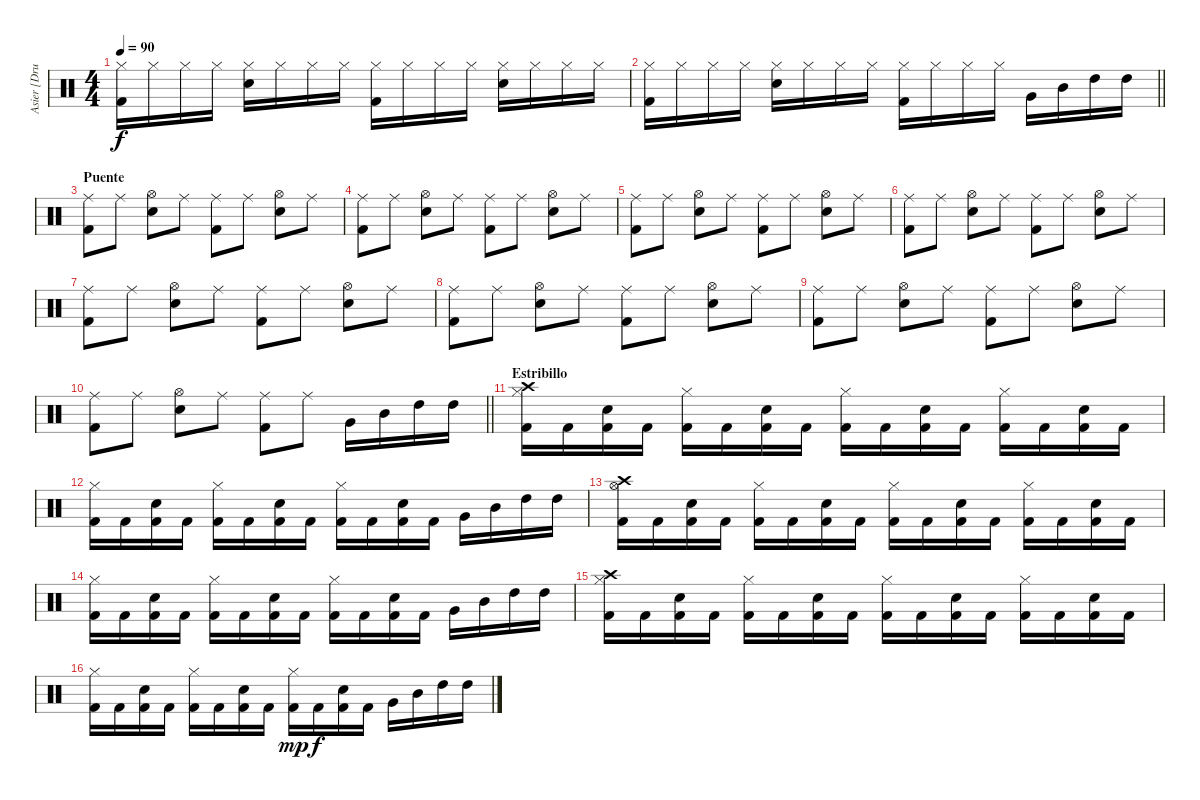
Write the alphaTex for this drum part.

\track ("Asier [Drums]" "Asier [Dru") {instrument percussion}
\staff {score}
\articulation defaults
\ts (4 4)
\tempo 90
\clef neutral
\ks c
("Hi-Hat (closed)" "Kick (hit) 2").16{dy f} "Hi-Hat (closed)".16 "Hi-Hat (closed)".16 "Hi-Hat (closed)".16 ("Hi-Hat (closed)" "Snare (hit) 2").16 "Hi-Hat (closed)".16 "Hi-Hat (closed)".16 "Hi-Hat (closed)".16 ("Hi-Hat (closed)" "Kick (hit) 2").16 "Hi-Hat (closed)".16 "Hi-Hat (closed)".16 "Hi-Hat (closed)".16 ("Hi-Hat (closed)" "Snare (hit) 2").16 "Hi-Hat (closed)".16 "Hi-Hat (closed)".16 "Hi-Hat (closed)".16 |
\barLineRight lightlight
("Hi-Hat (closed)" "Kick (hit) 2").16 "Hi-Hat (closed)".16 "Hi-Hat (closed)".16 "Hi-Hat (closed)".16 ("Hi-Hat (closed)" "Snare (hit) 2").16 "Hi-Hat (closed)".16 "Hi-Hat (closed)".16 "Hi-Hat (closed)".16 ("Hi-Hat (closed)" "Kick (hit) 2").16 "Hi-Hat (closed)".16 "Hi-Hat (closed)".16 "Hi-Hat (closed)".16 "Very Low Tom (hit)".16 "Mid Tom (hit)".16 "High Tom (hit)".16 "High Tom (hit)".16 |
\section ("" "Puente")
("Ride (middle)" "Kick (hit) 2").8 "Ride (middle)".8 ("Hi-Hat (open)" "Snare (hit) 2").8 "Ride (middle)".8 ("Ride (middle)" "Kick (hit) 2").8 "Ride (middle)".8 ("Hi-Hat (open)" "Snare (hit) 2").8 "Ride (middle)".8 |
("Ride (middle)" "Kick (hit) 2").8 "Ride (middle)".8 ("Hi-Hat (open)" "Snare (hit) 2").8 "Ride (middle)".8 ("Ride (middle)" "Kick (hit) 2").8 "Ride (middle)".8 ("Hi-Hat (open)" "Snare (hit) 2").8 "Ride (middle)".8 |
("Ride (middle)" "Kick (hit) 2").8 "Ride (middle)".8 ("Hi-Hat (open)" "Snare (hit) 2").8 "Ride (middle)".8 ("Ride (middle)" "Kick (hit) 2").8 "Ride (middle)".8 ("Hi-Hat (open)" "Snare (hit) 2").8 "Ride (middle)".8 |
("Ride (middle)" "Kick (hit) 2").8 "Ride (middle)".8 ("Hi-Hat (open)" "Snare (hit) 2").8 "Ride (middle)".8 ("Ride (middle)" "Kick (hit) 2").8 "Ride (middle)".8 ("Hi-Hat (open)" "Snare (hit) 2").8 "Ride (middle)".8 |
("Ride (middle)" "Kick (hit) 2").8 "Ride (middle)".8 ("Hi-Hat (open)" "Snare (hit) 2").8 "Ride (middle)".8 ("Ride (middle)" "Kick (hit) 2").8 "Ride (middle)".8 ("Hi-Hat (open)" "Snare (hit) 2").8 "Ride (middle)".8 |
("Ride (middle)" "Kick (hit) 2").8 "Ride (middle)".8 ("Hi-Hat (open)" "Snare (hit) 2").8 "Ride (middle)".8 ("Ride (middle)" "Kick (hit) 2").8 "Ride (middle)".8 ("Hi-Hat (open)" "Snare (hit) 2").8 "Ride (middle)".8 |
("Ride (middle)" "Kick (hit) 2").8 "Ride (middle)".8 ("Hi-Hat (open)" "Snare (hit) 2").8 "Ride (middle)".8 ("Ride (middle)" "Kick (hit) 2").8 "Ride (middle)".8 ("Hi-Hat (open)" "Snare (hit) 2").8 "Ride (middle)".8 |
\barLineRight lightlight
("Ride (middle)" "Kick (hit) 2").8 "Ride (middle)".8 ("Hi-Hat (open)" "Snare (hit) 2").8 "Ride (middle)".8 ("Ride (middle)" "Kick (hit) 2").8 "Ride (middle)".8 "Very Low Tom (hit)".16 "Mid Tom (hit)".16 "High Tom (hit)".16 "High Tom (hit)".16 |
\section ("" "Estribillo")
("Crash high (hit)" "Hi-Hat (closed)" "Kick (hit) 2").16 "Kick (hit) 2".16 ("Snare (hit) 2" "Kick (hit) 2").16 "Kick (hit) 2".16 ("Hi-Hat (closed)" "Kick (hit) 2").16 "Kick (hit) 2".16 ("Snare (hit) 2" "Kick (hit) 2").16 "Kick (hit) 2".16 ("Hi-Hat (closed)" "Kick (hit) 2").16 "Kick (hit) 2".16 ("Snare (hit) 2" "Kick (hit) 2").16 "Kick (hit) 2".16 ("Hi-Hat (closed)" "Kick (hit) 2").16 "Kick (hit) 2".16 ("Snare (hit) 2" "Kick (hit) 2").16 "Kick (hit) 2".16 |
("Hi-Hat (closed)" "Kick (hit) 2").16 "Kick (hit) 2".16 ("Snare (hit) 2" "Kick (hit) 2").16 "Kick (hit) 2".16 ("Hi-Hat (closed)" "Kick (hit) 2").16 "Kick (hit) 2".16 ("Snare (hit) 2" "Kick (hit) 2").16 "Kick (hit) 2".16 ("Hi-Hat (closed)" "Kick (hit) 2").16 "Kick (hit) 2".16 ("Snare (hit) 2" "Kick (hit) 2").16 "Kick (hit) 2".16 "Very Low Tom (hit)".16 "Mid Tom (hit)".16 "High Tom (hit)".16 "High Tom (hit)".16 |
("Crash high (hit)" "Hi-Hat (open)" "Kick (hit) 2").16 "Kick (hit) 2".16 ("Snare (hit) 2" "Kick (hit) 2").16 "Kick (hit) 2".16 ("Hi-Hat (closed)" "Kick (hit) 2").16 "Kick (hit) 2".16 ("Snare (hit) 2" "Kick (hit) 2").16 "Kick (hit) 2".16 ("Hi-Hat (closed)" "Kick (hit) 2").16 "Kick (hit) 2".16 ("Snare (hit) 2" "Kick (hit) 2").16 "Kick (hit) 2".16 ("Hi-Hat (closed)" "Kick (hit) 2").16 "Kick (hit) 2".16 ("Snare (hit) 2" "Kick (hit) 2").16 "Kick (hit) 2".16 |
("Hi-Hat (closed)" "Kick (hit) 2").16 "Kick (hit) 2".16 ("Snare (hit) 2" "Kick (hit) 2").16 "Kick (hit) 2".16 ("Hi-Hat (closed)" "Kick (hit) 2").16 "Kick (hit) 2".16 ("Snare (hit) 2" "Kick (hit) 2").16 "Kick (hit) 2".16 ("Hi-Hat (closed)" "Kick (hit) 2").16 "Kick (hit) 2".16 ("Snare (hit) 2" "Kick (hit) 2").16 "Kick (hit) 2".16 "Very Low Tom (hit)".16 "Mid Tom (hit)".16 "High Tom (hit)".16 "High Tom (hit)".16 |
("Crash high (hit)" "Hi-Hat (closed)" "Kick (hit) 2").16 "Kick (hit) 2".16 ("Snare (hit) 2" "Kick (hit) 2").16 "Kick (hit) 2".16 ("Hi-Hat (closed)" "Kick (hit) 2").16 "Kick (hit) 2".16 ("Snare (hit) 2" "Kick (hit) 2").16 "Kick (hit) 2".16 ("Hi-Hat (closed)" "Kick (hit) 2").16 "Kick (hit) 2".16 ("Snare (hit) 2" "Kick (hit) 2").16 "Kick (hit) 2".16 ("Hi-Hat (closed)" "Kick (hit) 2").16 "Kick (hit) 2".16 ("Snare (hit) 2" "Kick (hit) 2").16 "Kick (hit) 2".16 |
("Hi-Hat (closed)" "Kick (hit) 2").16 "Kick (hit) 2".16 ("Snare (hit) 2" "Kick (hit) 2").16 "Kick (hit) 2".16 ("Hi-Hat (closed)" "Kick (hit) 2").16 "Kick (hit) 2".16 ("Snare (hit) 2" "Kick (hit) 2").16 "Kick (hit) 2".16 ("Hi-Hat (closed)" "Kick (hit) 2").16{dy mp} "Kick (hit) 2".16{dy f} ("Snare (hit) 2" "Kick (hit) 2").16 "Kick (hit) 2".16 "Very Low Tom (hit)".16 "Mid Tom (hit)".16 "High Tom (hit)".16 "High Tom (hit)".16
